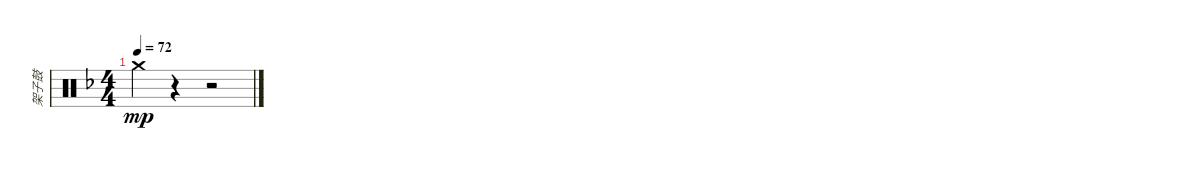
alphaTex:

\track ("架子鼓" "架子鼓") {instrument percussion}
\staff {score}
\articulation defaults
\ts (4 4)
\tempo 72
\clef neutral
\ks f "Crash medium (hit)".4{dy mp}
r.4 r.2
